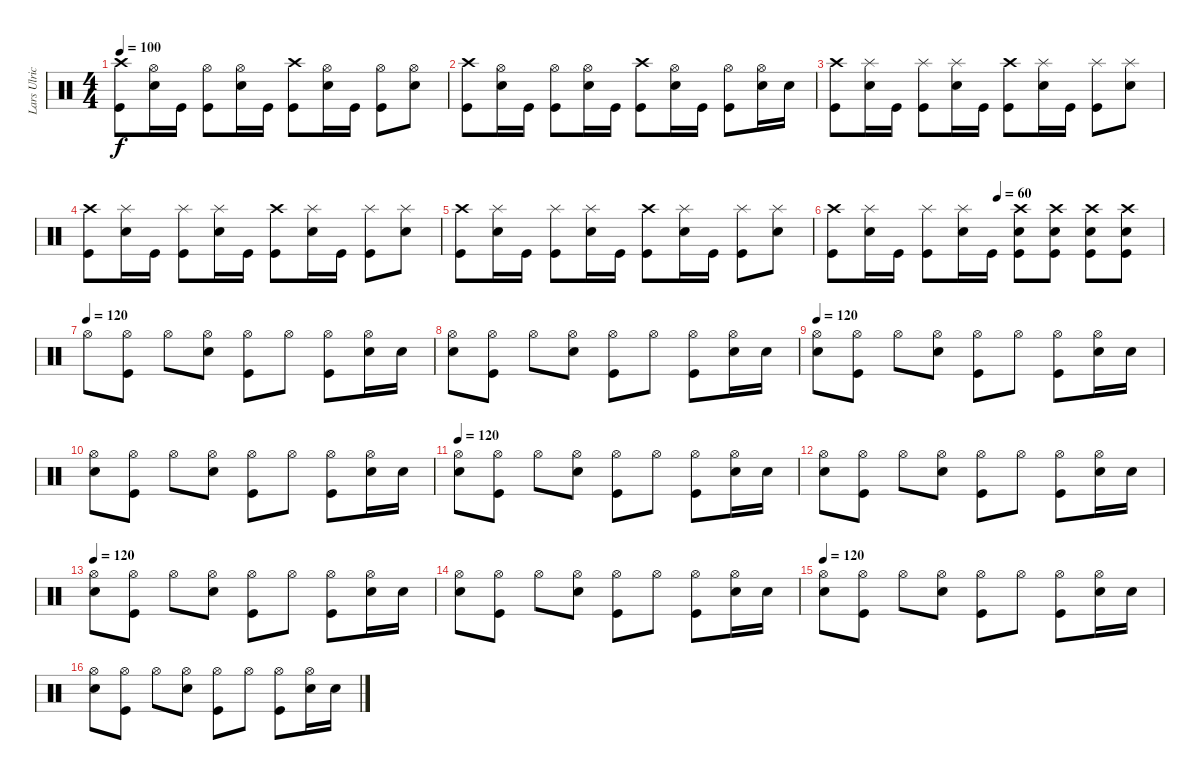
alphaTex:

\track ("Lars Ulrich Drums" "Lars Ulric") {instrument percussion}
\staff {score}
\articulation defaults
\ts (4 4)
\tempo 100
\clef neutral
\ks c
("Crash high (hit)" "Kick (hit)").8{dy f} ("Hi-Hat (open)" "Electric Snare (hit)").16 "Kick (hit)".16 ("Hi-Hat (open)" "Kick (hit)").8 ("Hi-Hat (open)" "Electric Snare (hit)").16 "Kick (hit)".16 ("Crash high (hit)" "Kick (hit)").8 ("Hi-Hat (open)" "Electric Snare (hit)").16 "Kick (hit)".16 ("Hi-Hat (open)" "Kick (hit)").8 ("Hi-Hat (open)" "Electric Snare (hit)").8 |
("Crash high (hit)" "Kick (hit)").8 ("Hi-Hat (open)" "Electric Snare (hit)").16 "Kick (hit)".16 ("Hi-Hat (open)" "Kick (hit)").8 ("Hi-Hat (open)" "Electric Snare (hit)").16 "Kick (hit)".16 ("Crash high (hit)" "Kick (hit)").8 ("Hi-Hat (open)" "Electric Snare (hit)").16 "Kick (hit)".16 ("Hi-Hat (open)" "Kick (hit)").8 ("Hi-Hat (open)" "Electric Snare (hit)").16 "Electric Snare (hit)".16 |
("Crash high (hit)" "Kick (hit)").8 ("Splash (hit)" "Electric Snare (hit)").16 "Kick (hit)".16 ("Splash (hit)" "Kick (hit)").8 ("Splash (hit)" "Electric Snare (hit)").16 "Kick (hit)".16 ("Crash high (hit)" "Kick (hit)").8 ("Splash (hit)" "Electric Snare (hit)").16 "Kick (hit)".16 ("Splash (hit)" "Kick (hit)").8 ("Splash (hit)" "Electric Snare (hit)").8 |
("Crash high (hit)" "Kick (hit)").8 ("Splash (hit)" "Electric Snare (hit)").16 "Kick (hit)".16 ("Splash (hit)" "Kick (hit)").8 ("Splash (hit)" "Electric Snare (hit)").16 "Kick (hit)".16 ("Crash high (hit)" "Kick (hit)").8 ("Splash (hit)" "Electric Snare (hit)").16 "Kick (hit)".16 ("Splash (hit)" "Kick (hit)").8 ("Splash (hit)" "Electric Snare (hit)").8 |
("Crash high (hit)" "Kick (hit)").8 ("Splash (hit)" "Electric Snare (hit)").16 "Kick (hit)".16 ("Splash (hit)" "Kick (hit)").8 ("Splash (hit)" "Electric Snare (hit)").16 "Kick (hit)".16 ("Crash high (hit)" "Kick (hit)").8 ("Splash (hit)" "Electric Snare (hit)").16 "Kick (hit)".16 ("Splash (hit)" "Kick (hit)").8 ("Splash (hit)" "Electric Snare (hit)").8 |
\tempo (60 0.5)
("Crash high (hit)" "Kick (hit)").8 ("Splash (hit)" "Electric Snare (hit)").16 "Kick (hit)".16 ("Splash (hit)" "Kick (hit)").8 ("Splash (hit)" "Electric Snare (hit)").16 "Kick (hit)".16 ("Crash high (hit)" "Electric Snare (hit)" "Kick (hit)").8 ("Crash high (hit)" "Electric Snare (hit)" "Kick (hit)").8 ("Crash high (hit)" "Electric Snare (hit)" "Kick (hit)").8 ("Crash high (hit)" "Electric Snare (hit)" "Kick (hit)").8 |
\tempo (120)
"Hi-Hat (open)".8 ("Hi-Hat (open)" "Kick (hit)").8 "Hi-Hat (open)".8 ("Hi-Hat (open)" "Electric Snare (hit)").8 ("Hi-Hat (open)" "Kick (hit)").8 "Hi-Hat (open)".8 ("Hi-Hat (open)" "Kick (hit)").8 ("Hi-Hat (open)" "Electric Snare (hit)").16 "Electric Snare (hit)".16 |
("Hi-Hat (open)" "Electric Snare (hit)").8 ("Hi-Hat (open)" "Kick (hit)").8 "Hi-Hat (open)".8 ("Hi-Hat (open)" "Electric Snare (hit)").8 ("Hi-Hat (open)" "Kick (hit)").8 "Hi-Hat (open)".8 ("Hi-Hat (open)" "Kick (hit)").8 ("Hi-Hat (open)" "Electric Snare (hit)").16 "Electric Snare (hit)".16 |
\tempo 120
("Hi-Hat (open)" "Electric Snare (hit)").8 ("Hi-Hat (open)" "Kick (hit)").8 "Hi-Hat (open)".8 ("Hi-Hat (open)" "Electric Snare (hit)").8 ("Hi-Hat (open)" "Kick (hit)").8 "Hi-Hat (open)".8 ("Hi-Hat (open)" "Kick (hit)").8 ("Hi-Hat (open)" "Electric Snare (hit)").16 "Electric Snare (hit)".16 |
("Hi-Hat (open)" "Electric Snare (hit)").8 ("Hi-Hat (open)" "Kick (hit)").8 "Hi-Hat (open)".8 ("Hi-Hat (open)" "Electric Snare (hit)").8 ("Hi-Hat (open)" "Kick (hit)").8 "Hi-Hat (open)".8 ("Hi-Hat (open)" "Kick (hit)").8 ("Hi-Hat (open)" "Electric Snare (hit)").16 "Electric Snare (hit)".16 |
\tempo 120
("Hi-Hat (open)" "Electric Snare (hit)").8 ("Hi-Hat (open)" "Kick (hit)").8 "Hi-Hat (open)".8 ("Hi-Hat (open)" "Electric Snare (hit)").8 ("Hi-Hat (open)" "Kick (hit)").8 "Hi-Hat (open)".8 ("Hi-Hat (open)" "Kick (hit)").8 ("Hi-Hat (open)" "Electric Snare (hit)").16 "Electric Snare (hit)".16 |
("Hi-Hat (open)" "Electric Snare (hit)").8 ("Hi-Hat (open)" "Kick (hit)").8 "Hi-Hat (open)".8 ("Hi-Hat (open)" "Electric Snare (hit)").8 ("Hi-Hat (open)" "Kick (hit)").8 "Hi-Hat (open)".8 ("Hi-Hat (open)" "Kick (hit)").8 ("Hi-Hat (open)" "Electric Snare (hit)").16 "Electric Snare (hit)".16 |
\tempo 120
("Hi-Hat (open)" "Electric Snare (hit)").8 ("Hi-Hat (open)" "Kick (hit)").8 "Hi-Hat (open)".8 ("Hi-Hat (open)" "Electric Snare (hit)").8 ("Hi-Hat (open)" "Kick (hit)").8 "Hi-Hat (open)".8 ("Hi-Hat (open)" "Kick (hit)").8 ("Hi-Hat (open)" "Electric Snare (hit)").16 "Electric Snare (hit)".16 |
("Hi-Hat (open)" "Electric Snare (hit)").8 ("Hi-Hat (open)" "Kick (hit)").8 "Hi-Hat (open)".8 ("Hi-Hat (open)" "Electric Snare (hit)").8 ("Hi-Hat (open)" "Kick (hit)").8 "Hi-Hat (open)".8 ("Hi-Hat (open)" "Kick (hit)").8 ("Hi-Hat (open)" "Electric Snare (hit)").16 "Electric Snare (hit)".16 |
\tempo 120
("Hi-Hat (open)" "Electric Snare (hit)").8 ("Hi-Hat (open)" "Kick (hit)").8 "Hi-Hat (open)".8 ("Hi-Hat (open)" "Electric Snare (hit)").8 ("Hi-Hat (open)" "Kick (hit)").8 "Hi-Hat (open)".8 ("Hi-Hat (open)" "Kick (hit)").8 ("Hi-Hat (open)" "Electric Snare (hit)").16 "Electric Snare (hit)".16 |
("Hi-Hat (open)" "Electric Snare (hit)").8 ("Hi-Hat (open)" "Kick (hit)").8 "Hi-Hat (open)".8 ("Hi-Hat (open)" "Electric Snare (hit)").8 ("Hi-Hat (open)" "Kick (hit)").8 "Hi-Hat (open)".8 ("Hi-Hat (open)" "Kick (hit)").8 ("Hi-Hat (open)" "Electric Snare (hit)").16 "Electric Snare (hit)".16
